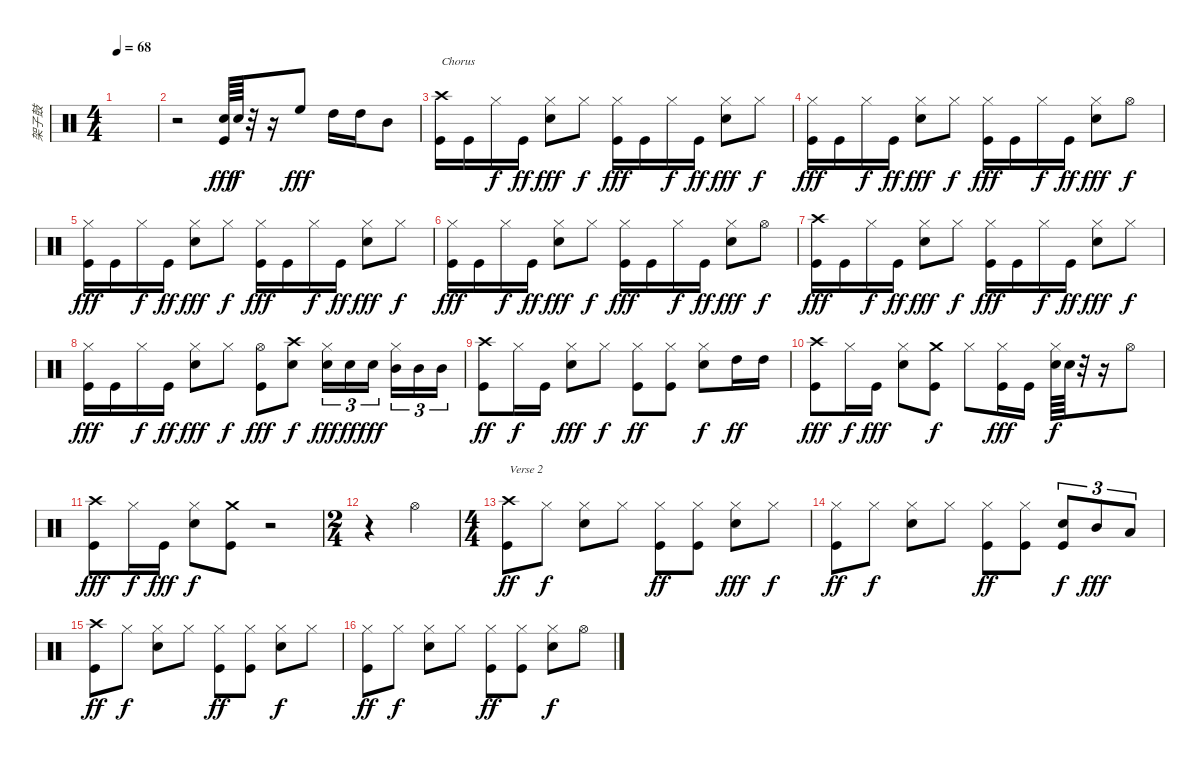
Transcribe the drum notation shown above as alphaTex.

\track ("架子鼓" "架子鼓") {instrument percussion}
\staff {score}
\articulation defaults
\ts (4 4)
\tempo 68
\clef neutral
\ks c
|
r.2 ("Snare (hit) 2" "Kick (hit)").64{dy fff} "Snare (hit) 2".64{dy f} r.32 r.16 "High Floor Tom (hit)".8{dy fff} "High Tom (hit)".16 "High Tom (hit)".16 "Mid Tom (hit)".8 |
("Crash high (hit)" "Kick (hit)").16{txt "Chorus"} "Kick (hit)".16 "Hi-Hat (closed)".16{dy f} "Kick (hit)".16{dy ff} ("Hi-Hat (closed)" "Snare (hit) 2").8{dy fff} "Hi-Hat (closed)".8{dy f} ("Hi-Hat (closed)" "Kick (hit)").16{dy fff} "Kick (hit)".16 "Hi-Hat (closed)".16{dy f} "Kick (hit)".16{dy ff} ("Hi-Hat (closed)" "Snare (hit) 2").8{dy fff} "Hi-Hat (closed)".8{dy f} |
("Hi-Hat (closed)" "Kick (hit)").16{dy fff} "Kick (hit)".16 "Hi-Hat (closed)".16{dy f} "Kick (hit)".16{dy ff} ("Hi-Hat (closed)" "Snare (hit) 2").8{dy fff} "Hi-Hat (closed)".8{dy f} ("Hi-Hat (closed)" "Kick (hit)").16{dy fff} "Kick (hit)".16 "Hi-Hat (closed)".16{dy f} "Kick (hit)".16{dy ff} ("Hi-Hat (closed)" "Snare (hit) 2").8{dy fff} "Hi-Hat (open)".8{dy f} |
("Hi-Hat (closed)" "Kick (hit)").16{dy fff} "Kick (hit)".16 "Hi-Hat (closed)".16{dy f} "Kick (hit)".16{dy ff} ("Hi-Hat (closed)" "Snare (hit) 2").8{dy fff} "Hi-Hat (closed)".8{dy f} ("Hi-Hat (closed)" "Kick (hit)").16{dy fff} "Kick (hit)".16 "Hi-Hat (closed)".16{dy f} "Kick (hit)".16{dy ff} ("Hi-Hat (closed)" "Snare (hit) 2").8{dy fff} "Hi-Hat (closed)".8{dy f} |
("Hi-Hat (closed)" "Kick (hit)").16{dy fff} "Kick (hit)".16 "Hi-Hat (closed)".16{dy f} "Kick (hit)".16{dy ff} ("Hi-Hat (closed)" "Snare (hit) 2").8{dy fff} "Hi-Hat (closed)".8{dy f} ("Hi-Hat (closed)" "Kick (hit)").16{dy fff} "Kick (hit)".16 "Hi-Hat (closed)".16{dy f} "Kick (hit)".16{dy ff} ("Hi-Hat (closed)" "Snare (hit) 2").8{dy fff} "Hi-Hat (open)".8{dy f} |
("Crash high (hit)" "Kick (hit)").16{dy fff} "Kick (hit)".16 "Hi-Hat (closed)".16{dy f} "Kick (hit)".16{dy ff} ("Hi-Hat (closed)" "Snare (hit) 2").8{dy fff} "Hi-Hat (closed)".8{dy f} ("Hi-Hat (closed)" "Kick (hit)").16{dy fff} "Kick (hit)".16 "Hi-Hat (closed)".16{dy f} "Kick (hit)".16{dy ff} ("Hi-Hat (closed)" "Snare (hit) 2").8{dy fff} "Hi-Hat (closed)".8{dy f} |
("Hi-Hat (closed)" "Kick (hit)").16{dy fff} "Kick (hit)".16 "Hi-Hat (closed)".16{dy f} "Kick (hit)".16{dy ff} ("Hi-Hat (closed)" "Snare (hit) 2").8{dy fff} "Hi-Hat (closed)".8{dy f} ("Hi-Hat (open)" "Kick (hit)").8{dy fff} ("Crash high (hit)" "Snare (hit) 2").8{dy f} ("Hi-Hat (closed)" "Snare (hit) 2").16{tu (3 2) dy fff} "Snare (hit) 2".16{tu (3 2) dy ff} "Snare (hit) 2".16{tu (3 2) dy fff} ("Hi-Hat (closed)" "Mid Tom (hit)").16{tu (3 2)} "Mid Tom (hit)".16{tu (3 2)} "Mid Tom (hit)".16{tu (3 2)} |
("Crash high (hit)" "Kick (hit)").8{dy ff} "Hi-Hat (closed)".16{dy f} "Kick (hit)".16 ("Hi-Hat (closed)" "Snare (hit) 2").8{dy fff} "Hi-Hat (closed)".8{dy f} ("Hi-Hat (closed)" "Kick (hit)").8{dy ff} ("Hi-Hat (closed)" "Kick (hit)").8 ("Hi-Hat (closed)" "Snare (hit) 2").8{dy f} "High Tom (hit)".16{dy ff} "High Tom (hit)".16 |
("Crash high (hit)" "Kick (hit)").8{dy fff} "Hi-Hat (closed)".16{dy f} "Kick (hit)".16{dy fff} ("Hi-Hat (closed)" "Snare (hit) 2").8 ("Crash medium (hit)" "Kick (hit)").8{dy f} "Hi-Hat (closed)".8 ("Hi-Hat (closed)" "Kick (hit)").16{dy fff} "Kick (hit)".16 ("Hi-Hat (closed)" "Snare (hit) 2").64{dy f} "Snare (hit) 2".64 r.32 r.16 "Hi-Hat (open)".8 |
("Crash high (hit)" "Kick (hit)").8{dy fff} "Hi-Hat (closed)".16{dy f} "Kick (hit)".16{dy fff} ("Hi-Hat (closed)" "Snare (hit) 2").8{dy f} ("Crash medium (hit)" "Kick (hit)").8 r.2 |
\ts (2 4)
r.4 "Hi-Hat (open)".4 |
\ts (4 4)
("Crash high (hit)" "Kick (hit)").8{txt "Verse 2" dy ff} "Hi-Hat (closed)".8{dy f} ("Hi-Hat (closed)" "Snare (hit) 2").8 "Hi-Hat (closed)".8 ("Hi-Hat (closed)" "Kick (hit)").8{dy ff} ("Hi-Hat (closed)" "Kick (hit)").8 ("Hi-Hat (closed)" "Snare (hit) 2").8{dy fff} "Hi-Hat (closed)".8{dy f} |
("Hi-Hat (closed)" "Kick (hit)").8{dy ff} "Hi-Hat (closed)".8{dy f} ("Hi-Hat (closed)" "Snare (hit) 2").8 "Hi-Hat (closed)".8 ("Hi-Hat (closed)" "Kick (hit)").8{dy ff} ("Hi-Hat (closed)" "Kick (hit)").8 ("Snare (hit) 2" "Kick (hit)").8{tu (3 2) dy f} "Mid Tom (hit)".8{tu (3 2) dy fff} "Low Tom (hit)".8{tu (3 2)} |
("Crash high (hit)" "Kick (hit)").8{dy ff} "Hi-Hat (closed)".8{dy f} ("Hi-Hat (closed)" "Snare (hit) 2").8 "Hi-Hat (closed)".8 ("Hi-Hat (closed)" "Kick (hit)").8{dy ff} ("Hi-Hat (closed)" "Kick (hit)").8 ("Hi-Hat (closed)" "Snare (hit) 2").8{dy f} "Hi-Hat (closed)".8 |
("Hi-Hat (closed)" "Kick (hit)").8{dy ff} "Hi-Hat (closed)".8{dy f} ("Hi-Hat (closed)" "Snare (hit) 2").8 "Hi-Hat (closed)".8 ("Hi-Hat (closed)" "Kick (hit)").8{dy ff} ("Hi-Hat (closed)" "Kick (hit)").8 ("Hi-Hat (closed)" "Snare (hit) 2").8{dy f} "Hi-Hat (open)".8
